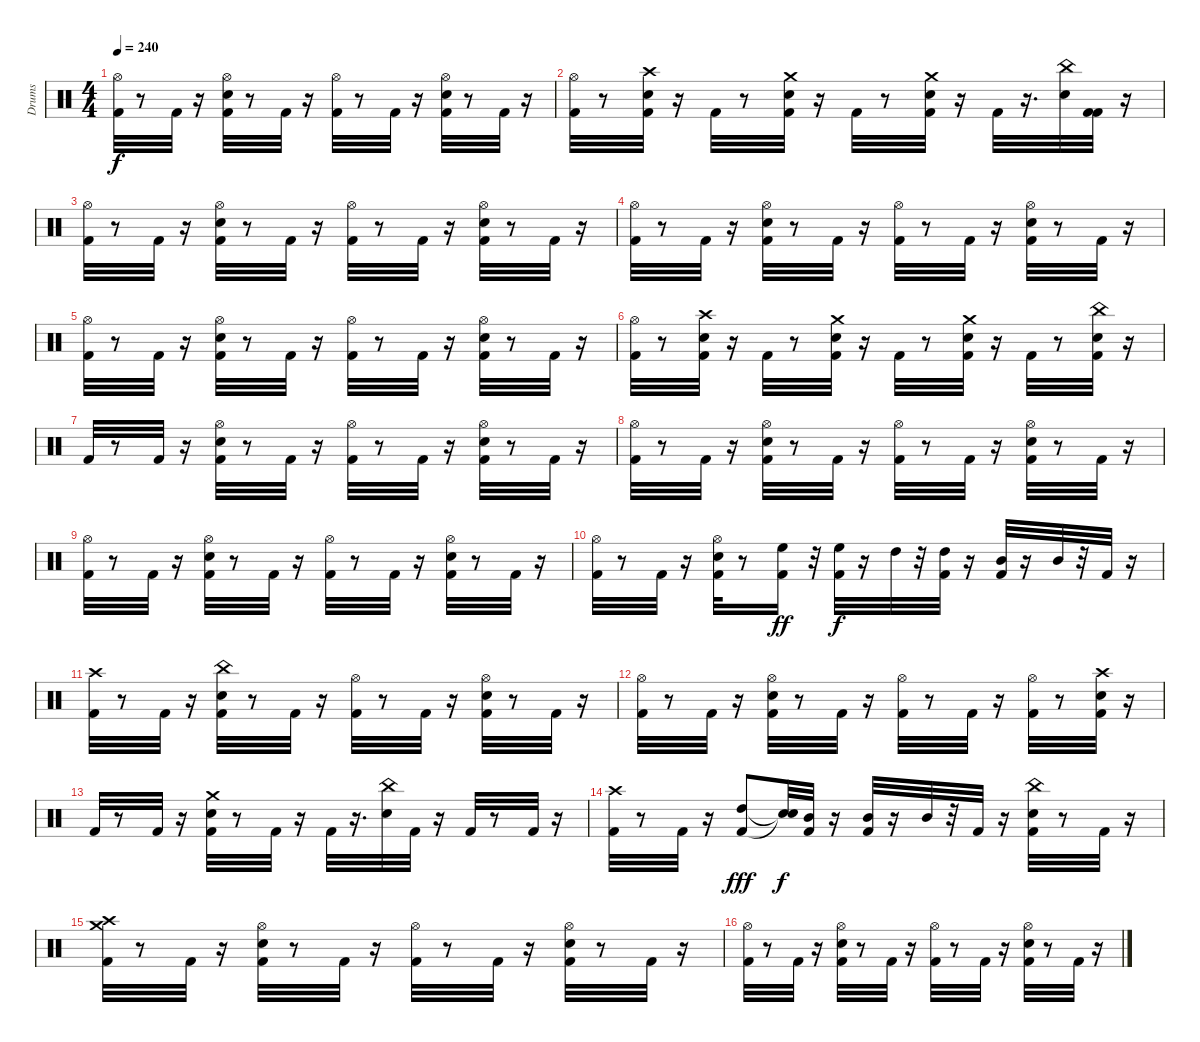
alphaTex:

\track ("Drums" "Drums") {instrument percussion}
\staff {score}
\articulation defaults
\ts (4 4)
\tempo 240
\clef neutral
\ks c
("Hi-Hat (open)" "Kick (hit) 2").32{dy f} r.8 "Kick (hit) 2".32 r.16 ("Hi-Hat (open)" "Kick (hit) 2" "Electric Snare (hit)").32 r.8 "Kick (hit) 2".32 r.16 ("Kick (hit) 2" "Hi-Hat (open)").32 r.8 "Kick (hit) 2".32 r.16 ("Hi-Hat (open)" "Kick (hit) 2" "Electric Snare (hit)").32 r.8 "Kick (hit) 2".32 r.16 |
("Kick (hit) 2" "Hi-Hat (open)").32 r.8 ("Kick (hit) 2" "Crash high (hit)" "Electric Snare (hit)").32 r.16 "Kick (hit) 2".32 r.8 ("Kick (hit) 2" "Crash medium (hit)" "Electric Snare (hit)").32 r.16 "Kick (hit) 2".32 r.8 ("Electric Snare (hit)" "Kick (hit) 2" "Crash medium (hit)").32 r.16 "Kick (hit) 2".32 r.16{d} ("Electric Snare (hit)" "China (hit)").32 ("Kick (hit) 2" "Kick (hit) 2").32 r.16 |
("Hi-Hat (open)" "Kick (hit) 2").32 r.8 "Kick (hit) 2".32 r.16 ("Electric Snare (hit)" "Kick (hit) 2" "Hi-Hat (open)").32 r.8 "Kick (hit) 2".32 r.16 ("Hi-Hat (open)" "Kick (hit) 2").32 r.8 "Kick (hit) 2".32 r.16 ("Electric Snare (hit)" "Kick (hit) 2" "Hi-Hat (open)").32 r.8 "Kick (hit) 2".32 r.16 |
("Hi-Hat (open)" "Kick (hit) 2").32 r.8 "Kick (hit) 2".32 r.16 ("Hi-Hat (open)" "Kick (hit) 2" "Electric Snare (hit)").32 r.8 "Kick (hit) 2".32 r.16 ("Kick (hit) 2" "Hi-Hat (open)").32 r.8 "Kick (hit) 2".32 r.16 ("Electric Snare (hit)" "Hi-Hat (open)" "Kick (hit) 2").32 r.8 "Kick (hit) 2".32 r.16 |
("Hi-Hat (open)" "Kick (hit) 2").32 r.8 "Kick (hit) 2".32 r.16 ("Electric Snare (hit)" "Kick (hit) 2" "Hi-Hat (open)").32 r.8 "Kick (hit) 2".32 r.16 ("Kick (hit) 2" "Hi-Hat (open)").32 r.8 "Kick (hit) 2".32 r.16 ("Hi-Hat (open)" "Electric Snare (hit)" "Kick (hit) 2").32 r.8 "Kick (hit) 2".32 r.16 |
("Hi-Hat (open)" "Kick (hit) 2").32 r.8 ("Electric Snare (hit)" "Crash high (hit)" "Kick (hit) 2").32 r.16 "Kick (hit) 2".32 r.8 ("Kick (hit) 2" "Electric Snare (hit)" "Crash medium (hit)").32 r.16 "Kick (hit) 2".32 r.8 ("Kick (hit) 2" "Crash medium (hit)" "Electric Snare (hit)").32 r.16 "Kick (hit) 2".32 r.8 ("China (hit)" "Kick (hit) 2" "Electric Snare (hit)").32 r.16 |
"Kick (hit) 2".32 r.8 "Kick (hit) 2".32 r.16 ("Electric Snare (hit)" "Kick (hit) 2" "Hi-Hat (open)").32 r.8 "Kick (hit) 2".32 r.16 ("Hi-Hat (open)" "Kick (hit) 2").32 r.8 "Kick (hit) 2".32 r.16 ("Hi-Hat (open)" "Electric Snare (hit)" "Kick (hit) 2").32 r.8 "Kick (hit) 2".32 r.16 |
("Kick (hit) 2" "Hi-Hat (open)").32 r.8 "Kick (hit) 2".32 r.16 ("Electric Snare (hit)" "Kick (hit) 2" "Hi-Hat (open)").32 r.8 "Kick (hit) 2".32 r.16 ("Hi-Hat (open)" "Kick (hit) 2").32 r.8 "Kick (hit) 2".32 r.16 ("Kick (hit) 2" "Electric Snare (hit)" "Hi-Hat (open)").32 r.8 "Kick (hit) 2".32 r.16 |
("Kick (hit) 2" "Hi-Hat (open)").32 r.8 "Kick (hit) 2".32 r.16 ("Kick (hit) 2" "Electric Snare (hit)" "Hi-Hat (open)").32 r.8 "Kick (hit) 2".32 r.16 ("Hi-Hat (open)" "Kick (hit) 2").32 r.8 "Kick (hit) 2".32 r.16 ("Electric Snare (hit)" "Hi-Hat (open)" "Kick (hit) 2").32 r.8 "Kick (hit) 2".32 r.16 |
("Hi-Hat (open)" "Kick (hit) 2").32 r.8 "Kick (hit) 2".32 r.16 ("Kick (hit) 2" "Hi-Hat (open)" "Electric Snare (hit)").32 r.8 ("Kick (hit) 2" "High Floor Tom (hit)").16{dy ff} r.32 ("Kick (hit) 2" "High Floor Tom (hit)").32{dy f} r.16 "High Tom (hit)".32 r.32 ("Kick (hit) 2" "High Tom (hit)").32 r.16 ("Kick (hit) 2" "Mid Tom (hit)").32 r.16 "Mid Tom (hit)".32 r.32 "Kick (hit) 2".32 r.16 |
("Crash high (hit)" "Kick (hit) 2").32 r.8 "Kick (hit) 2".32 r.16 ("Electric Snare (hit)" "Kick (hit) 2" "China (hit)").32 r.8 "Kick (hit) 2".32 r.16 ("Kick (hit) 2" "Hi-Hat (open)").32 r.8 "Kick (hit) 2".32 r.16 ("Hi-Hat (open)" "Electric Snare (hit)" "Kick (hit) 2").32 r.8 "Kick (hit) 2".32 r.16 |
("Kick (hit) 2" "Hi-Hat (open)").32 r.8 "Kick (hit) 2".32 r.16 ("Kick (hit) 2" "Electric Snare (hit)" "Hi-Hat (open)").32 r.8 "Kick (hit) 2".32 r.16 ("Hi-Hat (open)" "Kick (hit) 2").32 r.8 "Kick (hit) 2".32 r.16 ("Kick (hit) 2" "Hi-Hat (open)").32 r.8 ("Kick (hit) 2" "Crash high (hit)" "Electric Snare (hit)").32 r.16 |
"Kick (hit) 2".32 r.8 "Kick (hit) 2".32 r.16 ("Electric Snare (hit)" "Kick (hit) 2" "Crash medium (hit)").32 r.8 "Kick (hit) 2".32 r.16 "Kick (hit) 2".32 r.16{d} ("China (hit)" "Electric Snare (hit)").32 "Kick (hit) 2".32 r.16 "Kick (hit) 2".32 r.8 "Kick (hit) 2".32 r.16 |
("Crash high (hit)" "Kick (hit) 2").32 r.8 "Kick (hit) 2".32 r.16 ("Kick (hit) 2" "High Tom (hit)").8{dy fff} ("Snare (hit)"{t} "Snare (hit)"{t}).32{dy f} ("Kick (hit) 2" "Mid Tom (hit)").32 r.16 ("Mid Tom (hit)" "Kick (hit) 2").32 r.16 "Mid Tom (hit)".32 r.32 "Kick (hit) 2".32 r.16 ("China (hit)" "Electric Snare (hit)" "Kick (hit) 2").32 r.8 "Kick (hit) 2".32 r.16 |
("Kick (hit) 2" "Crash high (hit)" "Crash medium (hit)").32 r.8 "Kick (hit) 2".32 r.16 ("Hi-Hat (open)" "Kick (hit) 2" "Electric Snare (hit)").32 r.8 "Kick (hit) 2".32 r.16 ("Kick (hit) 2" "Hi-Hat (open)").32 r.8 "Kick (hit) 2".32 r.16 ("Electric Snare (hit)" "Hi-Hat (open)" "Kick (hit) 2").32 r.8 "Kick (hit) 2".32 r.16 |
("Kick (hit) 2" "Hi-Hat (open)").32 r.8 "Kick (hit) 2".32 r.16 ("Hi-Hat (open)" "Electric Snare (hit)" "Kick (hit) 2").32 r.8 "Kick (hit) 2".32 r.16 ("Hi-Hat (open)" "Kick (hit) 2").32 r.8 "Kick (hit) 2".32 r.16 ("Electric Snare (hit)" "Kick (hit) 2" "Hi-Hat (open)").32 r.8 "Kick (hit) 2".32 r.16
